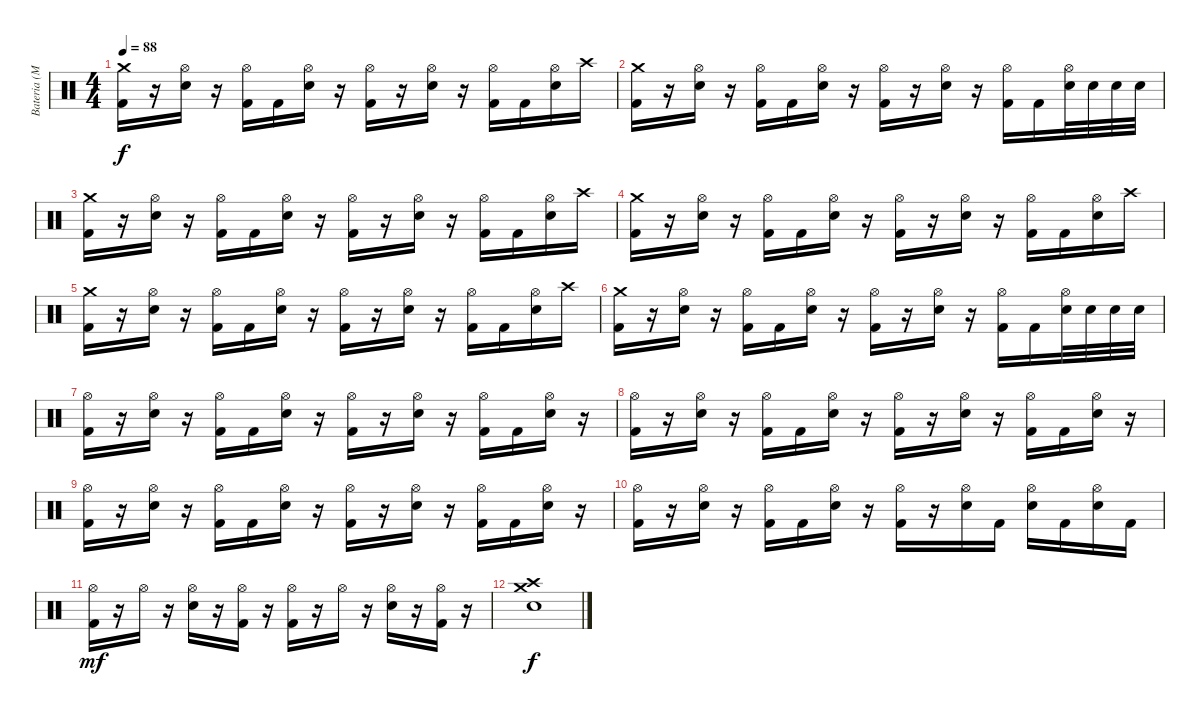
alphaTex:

\track ("Bateria (Matt)" "Bateria (M") {instrument percussion}
\staff {score}
\articulation defaults
\ts (4 4)
\tempo 88
\clef neutral
\ks c
("Crash medium (hit)" "Kick (hit) 2").16{dy f} r.16 ("Hi-Hat (open)" "Electric Snare (hit)").16 r.16 ("Hi-Hat (open)" "Kick (hit) 2").16 "Kick (hit) 2".16 ("Hi-Hat (open)" "Electric Snare (hit)").16 r.16 ("Hi-Hat (open)" "Kick (hit) 2").16 r.16 ("Hi-Hat (open)" "Electric Snare (hit)").16 r.16 ("Hi-Hat (open)" "Kick (hit) 2").16 "Kick (hit) 2".16 ("Hi-Hat (open)" "Electric Snare (hit)").16 "Crash high (hit)".16 |
("Crash medium (hit)" "Kick (hit) 2").16 r.16 ("Hi-Hat (open)" "Electric Snare (hit)").16 r.16 ("Hi-Hat (open)" "Kick (hit) 2").16 "Kick (hit) 2".16 ("Hi-Hat (open)" "Electric Snare (hit)").16 r.16 ("Hi-Hat (open)" "Kick (hit) 2").16 r.16 ("Hi-Hat (open)" "Electric Snare (hit)").16 r.16 ("Hi-Hat (open)" "Kick (hit) 2").16 "Kick (hit) 2".16 ("Hi-Hat (open)" "Electric Snare (hit)").32 "Electric Snare (hit)".32 "Electric Snare (hit)".32 "Electric Snare (hit)".32 |
("Crash medium (hit)" "Kick (hit) 2").16 r.16 ("Hi-Hat (open)" "Electric Snare (hit)").16 r.16 ("Hi-Hat (open)" "Kick (hit) 2").16 "Kick (hit) 2".16 ("Hi-Hat (open)" "Electric Snare (hit)").16 r.16 ("Hi-Hat (open)" "Kick (hit) 2").16 r.16 ("Hi-Hat (open)" "Electric Snare (hit)").16 r.16 ("Hi-Hat (open)" "Kick (hit) 2").16 "Kick (hit) 2".16 ("Hi-Hat (open)" "Electric Snare (hit)").16 "Crash high (hit)".16 |
("Crash medium (hit)" "Kick (hit) 2").16 r.16 ("Hi-Hat (open)" "Electric Snare (hit)").16 r.16 ("Hi-Hat (open)" "Kick (hit) 2").16 "Kick (hit) 2".16 ("Hi-Hat (open)" "Electric Snare (hit)").16 r.16 ("Hi-Hat (open)" "Kick (hit) 2").16 r.16 ("Hi-Hat (open)" "Electric Snare (hit)").16 r.16 ("Hi-Hat (open)" "Kick (hit) 2").16 "Kick (hit) 2".16 ("Hi-Hat (open)" "Electric Snare (hit)").16 "Crash high (hit)".16 |
("Crash medium (hit)" "Kick (hit) 2").16 r.16 ("Hi-Hat (open)" "Electric Snare (hit)").16 r.16 ("Hi-Hat (open)" "Kick (hit) 2").16 "Kick (hit) 2".16 ("Hi-Hat (open)" "Electric Snare (hit)").16 r.16 ("Hi-Hat (open)" "Kick (hit) 2").16 r.16 ("Hi-Hat (open)" "Electric Snare (hit)").16 r.16 ("Hi-Hat (open)" "Kick (hit) 2").16 "Kick (hit) 2".16 ("Hi-Hat (open)" "Electric Snare (hit)").16 "Crash high (hit)".16 |
("Crash medium (hit)" "Kick (hit) 2").16 r.16 ("Hi-Hat (open)" "Electric Snare (hit)").16 r.16 ("Hi-Hat (open)" "Kick (hit) 2").16 "Kick (hit) 2".16 ("Hi-Hat (open)" "Electric Snare (hit)").16 r.16 ("Hi-Hat (open)" "Kick (hit) 2").16 r.16 ("Hi-Hat (open)" "Electric Snare (hit)").16 r.16 ("Hi-Hat (open)" "Kick (hit) 2").16 "Kick (hit) 2".16 ("Hi-Hat (open)" "Electric Snare (hit)").32 "Electric Snare (hit)".32 "Electric Snare (hit)".32 "Electric Snare (hit)".32 |
("Hi-Hat (open)" "Kick (hit) 2").16 r.16 ("Hi-Hat (open)" "Electric Snare (hit)").16 r.16 ("Hi-Hat (open)" "Kick (hit) 2").16 "Kick (hit) 2".16 ("Hi-Hat (open)" "Electric Snare (hit)").16 r.16 ("Hi-Hat (open)" "Kick (hit) 2").16 r.16 ("Hi-Hat (open)" "Electric Snare (hit)").16 r.16 ("Hi-Hat (open)" "Kick (hit) 2").16 "Kick (hit) 2".16 ("Hi-Hat (open)" "Electric Snare (hit)").16 r.16 |
("Hi-Hat (open)" "Kick (hit) 2").16 r.16 ("Hi-Hat (open)" "Electric Snare (hit)").16 r.16 ("Hi-Hat (open)" "Kick (hit) 2").16 "Kick (hit) 2".16 ("Hi-Hat (open)" "Electric Snare (hit)").16 r.16 ("Hi-Hat (open)" "Kick (hit) 2").16 r.16 ("Hi-Hat (open)" "Electric Snare (hit)").16 r.16 ("Hi-Hat (open)" "Kick (hit) 2").16 "Kick (hit) 2".16 ("Hi-Hat (open)" "Electric Snare (hit)").16 r.16 |
("Hi-Hat (open)" "Kick (hit) 2").16 r.16 ("Hi-Hat (open)" "Electric Snare (hit)").16 r.16 ("Hi-Hat (open)" "Kick (hit) 2").16 "Kick (hit) 2".16 ("Hi-Hat (open)" "Electric Snare (hit)").16 r.16 ("Hi-Hat (open)" "Kick (hit) 2").16 r.16 ("Hi-Hat (open)" "Electric Snare (hit)").16 r.16 ("Hi-Hat (open)" "Kick (hit) 2").16 "Kick (hit) 2".16 ("Hi-Hat (open)" "Electric Snare (hit)").16 r.16 |
("Hi-Hat (open)" "Kick (hit) 2").16 r.16 ("Hi-Hat (open)" "Electric Snare (hit)").16 r.16 ("Hi-Hat (open)" "Kick (hit) 2").16 "Kick (hit) 2".16 ("Hi-Hat (open)" "Electric Snare (hit)").16 r.16 ("Hi-Hat (open)" "Kick (hit) 2").16 r.16 ("Hi-Hat (open)" "Electric Snare (hit)").16 "Kick (hit) 2".16 ("Hi-Hat (open)" "Electric Snare (hit)").16 "Kick (hit) 2".16 ("Hi-Hat (open)" "Electric Snare (hit)").16 "Kick (hit) 2".16 |
("Hi-Hat (open)" "Kick (hit) 2").16{dy mf} r.16 "Hi-Hat (open)".16 r.16 ("Hi-Hat (open)" "Electric Snare (hit)").16 r.16 ("Hi-Hat (open)" "Kick (hit) 2").16 r.16 ("Hi-Hat (open)" "Kick (hit) 2").16 r.16 "Hi-Hat (open)".16 r.16 ("Hi-Hat (open)" "Electric Snare (hit)").16 r.16 ("Hi-Hat (open)" "Kick (hit) 2").16 r.16 |
("Crash medium (hit)" "Crash high (hit)" "Electric Snare (hit)").1{dy f}
